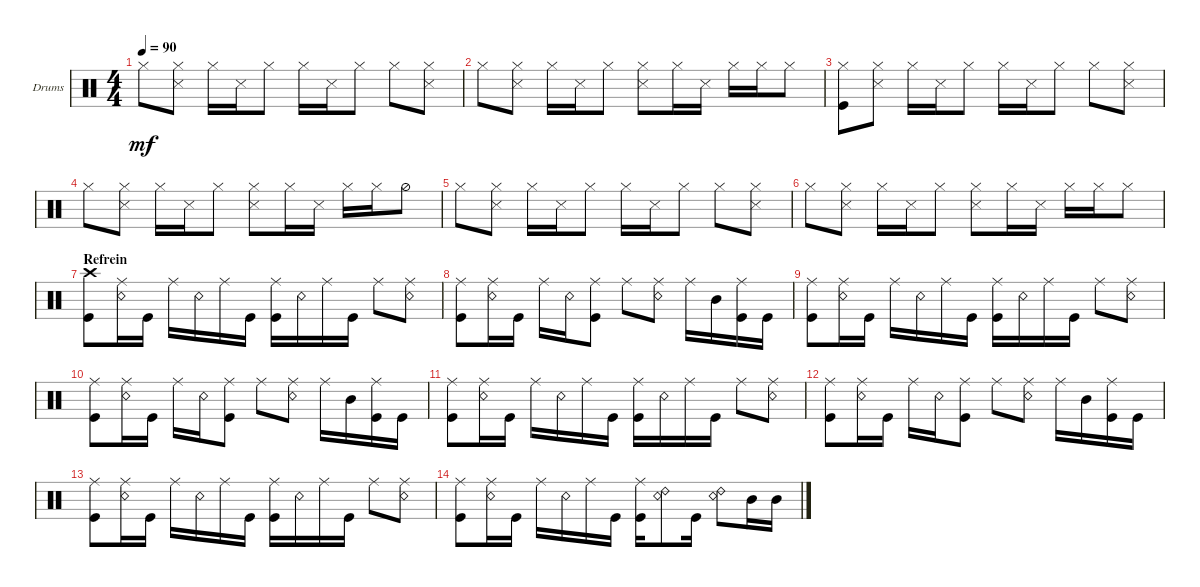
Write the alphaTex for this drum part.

\defaultSystemsLayout 4
\bracketExtendMode groupsimilarinstruments
\firstSystemTrackNameOrientation horizontal
\otherSystemsTrackNameOrientation horizontal
\track ("Drumkit" "Drums") {instrument percussion}
\staff {score}
\articulation defaults
\ts (4 4)
\tempo 90
\clef neutral
\ks c "Hi-Hat (closed)".8{dy mf}
("Hi-Hat (closed)" "Snare (side stick) 3").8 "Hi-Hat (closed)".16 "Snare (side stick) 3".16 "Hi-Hat (closed)".8 "Hi-Hat (closed)".16 "Snare (side stick) 3".16 "Hi-Hat (closed)".8 "Hi-Hat (closed)".8 ("Hi-Hat (closed)" "Snare (side stick) 3").8 |
"Hi-Hat (closed)".8 ("Hi-Hat (closed)" "Snare (side stick) 3").8 "Hi-Hat (closed)".16 "Snare (side stick) 3".16 "Hi-Hat (closed)".8 ("Hi-Hat (closed)" "Snare (side stick) 3").8 "Hi-Hat (closed)".16 "Snare (side stick) 3".16 "Hi-Hat (closed)".16 "Hi-Hat (closed)".16 "Hi-Hat (closed)".8 |
("Hi-Hat (closed)" "Kick (hit)").8 ("Hi-Hat (closed)" "Snare (side stick) 3").8 "Hi-Hat (closed)".16 "Snare (side stick) 3".16 "Hi-Hat (closed)".8 "Hi-Hat (closed)".16 "Snare (side stick) 3".16 "Hi-Hat (closed)".8 "Hi-Hat (closed)".8 ("Hi-Hat (closed)" "Snare (side stick) 3").8 |
"Hi-Hat (closed)".8 ("Hi-Hat (closed)" "Snare (side stick) 3").8 "Hi-Hat (closed)".16 "Snare (side stick) 3".16 "Hi-Hat (closed)".8 ("Hi-Hat (closed)" "Snare (side stick) 3").8 "Hi-Hat (closed)".16 "Snare (side stick) 3".16 "Hi-Hat (closed)".16 "Hi-Hat (closed)".16 "Hi-Hat (half)".8 |
"Hi-Hat (closed)".8 ("Hi-Hat (closed)" "Snare (side stick) 3").8 "Hi-Hat (closed)".16 "Snare (side stick) 3".16 "Hi-Hat (closed)".8 "Hi-Hat (closed)".16 "Snare (side stick) 3".16 "Hi-Hat (closed)".8 "Hi-Hat (closed)".8 ("Hi-Hat (closed)" "Snare (side stick) 3").8 |
"Hi-Hat (closed)".8 ("Hi-Hat (closed)" "Snare (side stick) 3").8 "Hi-Hat (closed)".16 "Snare (side stick) 3".16 "Hi-Hat (closed)".8 ("Hi-Hat (closed)" "Snare (side stick) 3").8 "Hi-Hat (closed)".16 "Snare (side stick) 3".16 "Hi-Hat (closed)".16 "Hi-Hat (closed)".16 "Hi-Hat (closed)".8 |
\section ("" "Refrein")
("Kick (hit)" "Crash high (hit)").8 ("Ride (middle)" "Snare (rim shot)").16 "Kick (hit)".16 "Ride (middle)".16 "Snare (rim shot)".16 "Ride (middle)".16 "Kick (hit)".16 ("Kick (hit)" "Ride (middle)").16 "Snare (rim shot)".16 "Ride (middle)".16 "Kick (hit)".16 "Ride (middle)".8 ("Snare (rim shot)" "Ride (middle)").8 |
("Ride (middle)" "Kick (hit)").8 ("Ride (middle)" "Snare (rim shot)").16 "Kick (hit)".16 "Ride (middle)".16 "Snare (rim shot)".16 ("Ride (middle)" "Kick (hit)").8 "Ride (middle)".8 ("Ride (middle)" "Snare (rim shot)").8 "Ride (middle)".16 "Mid Tom (hit)".16 ("Kick (hit)" "Ride (middle)").16 "Kick (hit)".16 |
("Kick (hit)" "Ride (middle)").8 ("Ride (middle)" "Snare (rim shot)").16 "Kick (hit)".16 "Ride (middle)".16 "Snare (rim shot)".16 "Ride (middle)".16 "Kick (hit)".16 ("Kick (hit)" "Ride (middle)").16 "Snare (rim shot)".16 "Ride (middle)".16 "Kick (hit)".16 "Ride (middle)".8 ("Snare (rim shot)" "Ride (middle)").8 |
("Ride (middle)" "Kick (hit)").8 ("Ride (middle)" "Snare (rim shot)").16 "Kick (hit)".16 "Ride (middle)".16 "Snare (rim shot)".16 ("Ride (middle)" "Kick (hit)").8 "Ride (middle)".8 ("Ride (middle)" "Snare (rim shot)").8 "Ride (middle)".16 "Mid Tom (hit)".16 ("Kick (hit)" "Ride (middle)").16 "Kick (hit)".16 |
("Kick (hit)" "Ride (middle)").8 ("Ride (middle)" "Snare (rim shot)").16 "Kick (hit)".16 "Ride (middle)".16 "Snare (rim shot)".16 "Ride (middle)".16 "Kick (hit)".16 ("Kick (hit)" "Ride (middle)").16 "Snare (rim shot)".16 "Ride (middle)".16 "Kick (hit)".16 "Ride (middle)".8 ("Snare (rim shot)" "Ride (middle)").8 |
("Ride (middle)" "Kick (hit)").8 ("Ride (middle)" "Snare (rim shot)").16 "Kick (hit)".16 "Ride (middle)".16 "Snare (rim shot)".16 ("Ride (middle)" "Kick (hit)").8 "Ride (middle)".8 ("Ride (middle)" "Snare (rim shot)").8 "Ride (middle)".16 "Mid Tom (hit)".16 ("Kick (hit)" "Ride (middle)").16 "Kick (hit)".16 |
("Kick (hit)" "Ride (middle)").8 ("Ride (middle)" "Snare (rim shot)").16 "Kick (hit)".16 "Ride (middle)".16 "Snare (rim shot)".16 "Ride (middle)".16 "Kick (hit)".16 ("Kick (hit)" "Ride (middle)").16 "Snare (rim shot)".16 "Ride (middle)".16 "Kick (hit)".16 "Ride (middle)".8 ("Snare (rim shot)" "Ride (middle)").8 |
("Ride (middle)" "Kick (hit)").8 ("Ride (middle)" "Snare (rim shot)").16 "Kick (hit)".16 "Ride (middle)".16 "Snare (rim shot)".16 "Ride (middle)".16 "Kick (hit)".16 ("Ride (middle)" "Kick (hit)").16 ("Snare (rim shot)" "Ride (bell) 2").8 "Kick (hit)".16 ("Ride (bell) 2" "Snare (rim shot)").8 "Mid Tom (hit)".16 "Mid Tom (hit)".16
